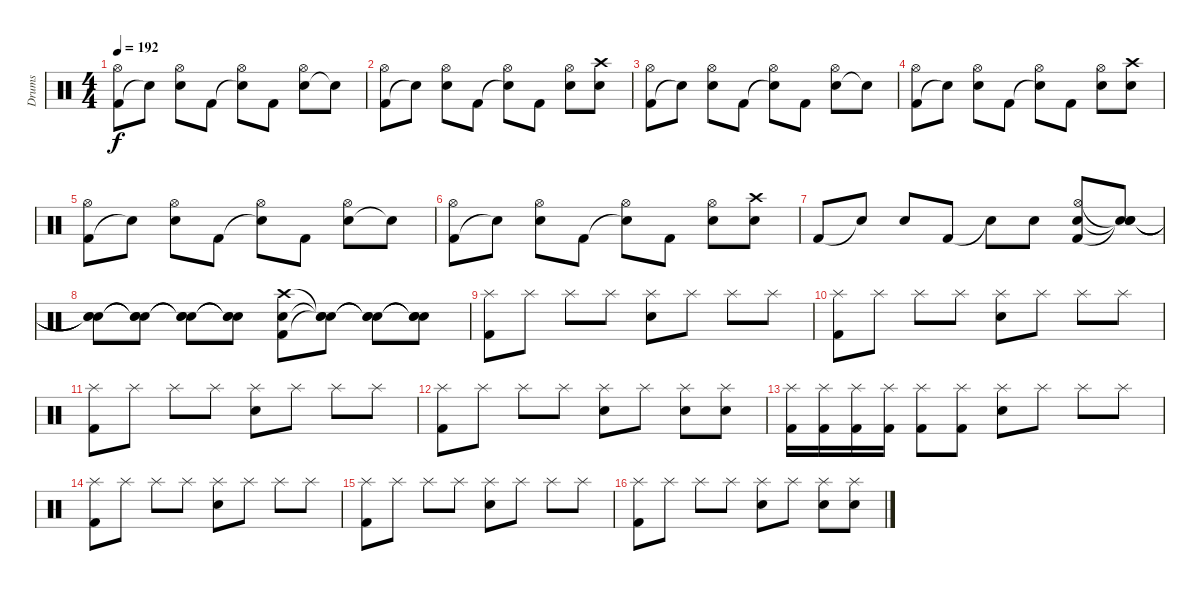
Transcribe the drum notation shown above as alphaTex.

\track ("Drums" "Drums") {instrument percussion}
\staff {score}
\articulation defaults
\ts (4 4)
\tempo 192
\clef neutral
\ks c
("Kick (hit) 2" "Hi-Hat (open)").8{dy f} "Snare (hit)"{t}.8 ("Electric Snare (hit)" "Hi-Hat (open)").8 "Kick (hit) 2".8 ("Snare (hit)"{t} "Hi-Hat (open)").8 "Kick (hit) 2".8 ("Electric Snare (hit)" "Hi-Hat (open)").8 "Electric Snare (hit)"{t}.8 |
("Kick (hit) 2" "Hi-Hat (open)").8 "Snare (hit)"{t}.8 ("Electric Snare (hit)" "Hi-Hat (open)").8 "Kick (hit) 2".8 ("Snare (hit)"{t} "Hi-Hat (open)").8 "Kick (hit) 2".8 ("Electric Snare (hit)" "Hi-Hat (open)").8 ("Electric Snare (hit)" "Crash high (hit)").8 |
("Kick (hit) 2" "Hi-Hat (open)").8 "Snare (hit)"{t}.8 ("Electric Snare (hit)" "Hi-Hat (open)").8 "Kick (hit) 2".8 ("Snare (hit)"{t} "Hi-Hat (open)").8 "Kick (hit) 2".8 ("Electric Snare (hit)" "Hi-Hat (open)").8 "Electric Snare (hit)"{t}.8 |
("Kick (hit) 2" "Hi-Hat (open)").8 "Snare (hit)"{t}.8 ("Electric Snare (hit)" "Hi-Hat (open)").8 "Kick (hit) 2".8 ("Snare (hit)"{t} "Hi-Hat (open)").8 "Kick (hit) 2".8 ("Electric Snare (hit)" "Hi-Hat (open)").8 ("Electric Snare (hit)" "Crash high (hit)").8 |
("Kick (hit) 2" "Hi-Hat (open)").8 "Snare (hit)"{t}.8 ("Electric Snare (hit)" "Hi-Hat (open)").8 "Kick (hit) 2".8 ("Snare (hit)"{t} "Hi-Hat (open)").8 "Kick (hit) 2".8 ("Electric Snare (hit)" "Hi-Hat (open)").8 "Electric Snare (hit)"{t}.8 |
("Kick (hit) 2" "Hi-Hat (open)").8 "Snare (hit)"{t}.8 ("Electric Snare (hit)" "Hi-Hat (open)").8 "Kick (hit) 2".8 ("Snare (hit)"{t} "Hi-Hat (open)").8 "Kick (hit) 2".8 ("Electric Snare (hit)" "Hi-Hat (open)").8 ("Electric Snare (hit)" "Crash high (hit)").8 |
"Kick (hit) 2".8 "Snare (hit)"{t}.8 "Electric Snare (hit)".8 "Kick (hit) 2".8 "Snare (hit)"{t}.8 "Electric Snare (hit)".8 ("Kick (hit) 2" "Snare (hit) 2" "Hi-Hat (open)").8 ("Snare (hit)"{t} "Snare (hit)"{t} "Snare (hit)"{t}).8 |
("Snare (hit)"{t} "Snare (hit)"{t} "Snare (hit)"{t}).8 ("Snare (hit)"{t} "Snare (hit)"{t} "Snare (hit)"{t}).8 ("Snare (hit)"{t} "Snare (hit)"{t} "Snare (hit)"{t}).8 ("Snare (hit)"{t} "Snare (hit)"{t} "Snare (hit)"{t}).8 ("Kick (hit) 2" "Electric Snare (hit)" "Crash high (hit)").8 ("Snare (hit)"{t} "Snare (hit)"{t} "Snare (hit)"{t}).8 ("Snare (hit)"{t} "Snare (hit)"{t} "Snare (hit)"{t}).8 ("Snare (hit)"{t} "Snare (hit)"{t} "Snare (hit)"{t}).8 |
("Splash (hit)" "Kick (hit) 2").8 "Splash (hit)".8 "Splash (hit)".8 "Splash (hit)".8 ("Splash (hit)" "Electric Snare (hit)").8 "Splash (hit)".8 "Splash (hit)".8 "Splash (hit)".8 |
("Splash (hit)" "Kick (hit) 2").8 "Splash (hit)".8 "Splash (hit)".8 "Splash (hit)".8 ("Splash (hit)" "Electric Snare (hit)").8 "Splash (hit)".8 "Splash (hit)".8 "Splash (hit)".8 |
("Splash (hit)" "Kick (hit) 2").8 "Splash (hit)".8 "Splash (hit)".8 "Splash (hit)".8 ("Splash (hit)" "Electric Snare (hit)").8 "Splash (hit)".8 "Splash (hit)".8 "Splash (hit)".8 |
("Splash (hit)" "Kick (hit) 2").8 "Splash (hit)".8 "Splash (hit)".8 "Splash (hit)".8 ("Splash (hit)" "Electric Snare (hit)").8 "Splash (hit)".8 ("Splash (hit)" "Electric Snare (hit)").8 ("Splash (hit)" "Electric Snare (hit)").8 |
("Splash (hit)" "Kick (hit) 2").16 ("Splash (hit)" "Kick (hit) 2").16 ("Splash (hit)" "Kick (hit) 2").16 ("Splash (hit)" "Kick (hit) 2").16 ("Splash (hit)" "Kick (hit) 2").8 ("Splash (hit)" "Kick (hit) 2").8 ("Splash (hit)" "Electric Snare (hit)").8 "Splash (hit)".8 "Splash (hit)".8 "Splash (hit)".8 |
("Splash (hit)" "Kick (hit) 2").8 "Splash (hit)".8 "Splash (hit)".8 "Splash (hit)".8 ("Splash (hit)" "Electric Snare (hit)").8 "Splash (hit)".8 "Splash (hit)".8 "Splash (hit)".8 |
("Splash (hit)" "Kick (hit) 2").8 "Splash (hit)".8 "Splash (hit)".8 "Splash (hit)".8 ("Splash (hit)" "Electric Snare (hit)").8 "Splash (hit)".8 "Splash (hit)".8 "Splash (hit)".8 |
("Splash (hit)" "Kick (hit) 2").8 "Splash (hit)".8 "Splash (hit)".8 "Splash (hit)".8 ("Splash (hit)" "Electric Snare (hit)").8 "Splash (hit)".8 ("Splash (hit)" "Electric Snare (hit)").8 ("Splash (hit)" "Electric Snare (hit)").8
